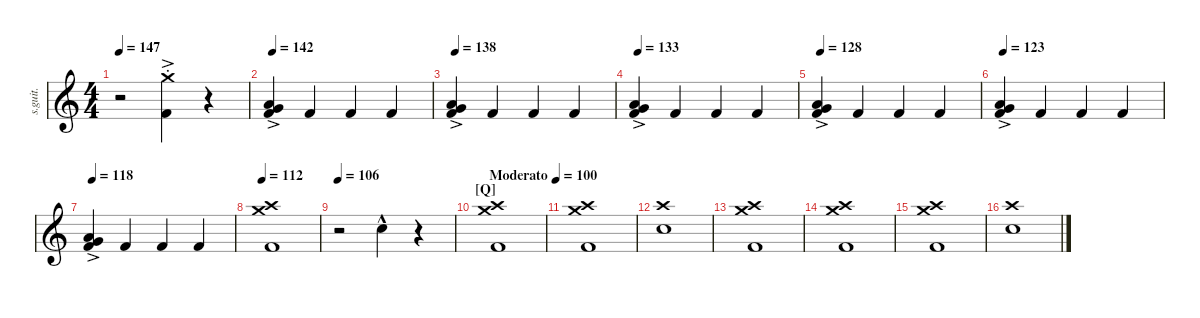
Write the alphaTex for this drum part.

\defaultSystemsLayout 4
\hideDynamics
\bracketExtendMode nobrackets
\track ("" "s.guit.") {instrument percussion}
\staff {score}
\articulation defaults
\ts (4 4)
\tempo 147
\clef g2
\ks c
r.2{dy ff} ("Crash medium (hit)"{ac st} "Kick (hit) 2").4 r.4 |
\tempo 142
("Low Tom (hit)"{ac} "Very Low Tom (hit)"{ac} "Kick (hit) 2").4 "Kick (hit) 2".4 "Kick (hit) 2".4 "Kick (hit) 2".4 |
\tempo 138
("Low Tom (hit)"{ac} "Very Low Tom (hit)"{ac} "Kick (hit) 2").4 "Kick (hit) 2".4 "Kick (hit) 2".4 "Kick (hit) 2".4 |
\tempo 133
("Low Tom (hit)"{ac} "Very Low Tom (hit)"{ac} "Kick (hit) 2").4 "Kick (hit) 2".4 "Kick (hit) 2".4 "Kick (hit) 2".4 |
\tempo 128
("Low Tom (hit)"{ac} "Very Low Tom (hit)"{ac} "Kick (hit) 2").4 "Kick (hit) 2".4 "Kick (hit) 2".4 "Kick (hit) 2".4 |
\tempo 123
("Low Tom (hit)"{ac} "Very Low Tom (hit)"{ac} "Kick (hit) 2").4 "Kick (hit) 2".4 "Kick (hit) 2".4 "Kick (hit) 2".4 |
\tempo 118
("Low Tom (hit)"{ac} "Very Low Tom (hit)"{ac} "Kick (hit) 2").4 "Kick (hit) 2".4 "Kick (hit) 2".4 "Kick (hit) 2".4 |
\tempo 112
("Crash medium (hit)" "Crash high (hit)" "Kick (hit) 2").1 |
\tempo 106
r.2 "Snare (hit) 2"{hac}.4 r.4 |
\section ("Q" "")
\tempo (100 "Moderato")
("Crash high (hit)" "Crash medium (hit)" "Kick (hit) 2").1 |
("Crash high (hit)" "Crash medium (hit)" "Kick (hit) 2").1 |
("Crash high (hit)" "Snare (hit) 2").1 |
("Crash high (hit)" "Crash medium (hit)" "Kick (hit) 2").1 |
("Crash high (hit)" "Crash medium (hit)" "Kick (hit) 2").1 |
("Crash high (hit)" "Crash medium (hit)" "Kick (hit) 2").1 |
("Crash high (hit)" "Snare (hit) 2").1
